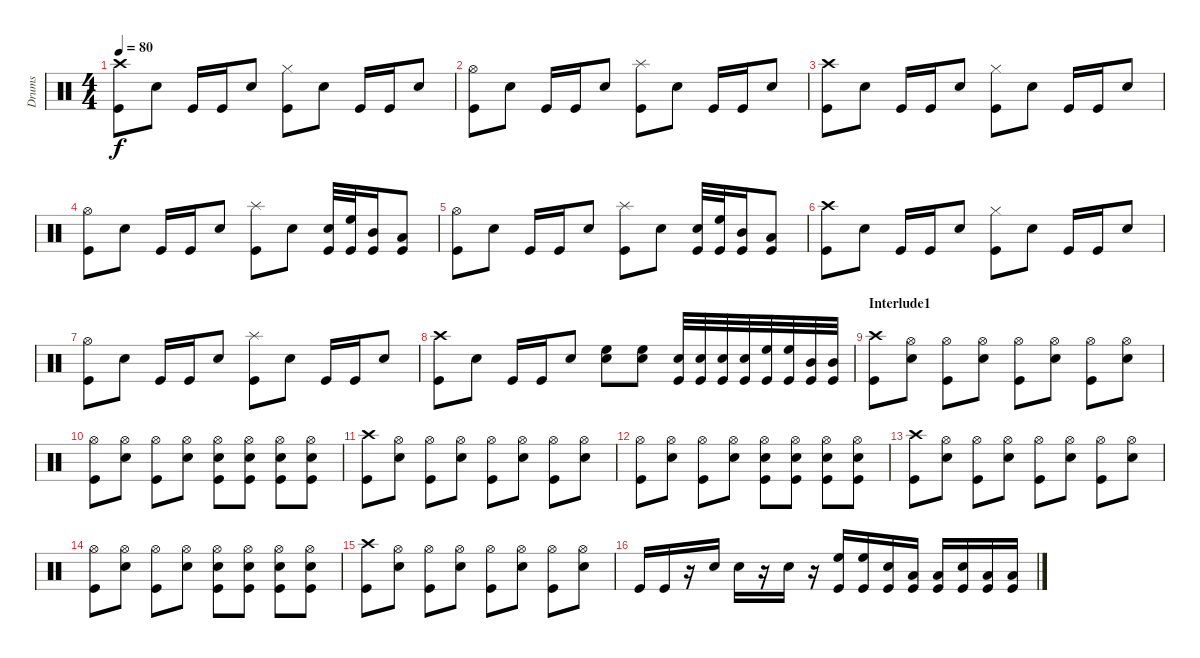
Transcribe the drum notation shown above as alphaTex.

\track ("Drums" "Drums") {instrument percussion}
\staff {score}
\articulation defaults
\ts (4 4)
\tempo 80
\clef neutral
\ks c
("Crash high (hit)" "Kick (hit)").8{dy f} "Electric Snare (hit)".8 "Kick (hit)".16 "Kick (hit)".16 "Electric Snare (hit)".8 ("Hi-Hat (closed)" "Kick (hit)").8 "Electric Snare (hit)".8 "Kick (hit)".16 "Kick (hit)".16 "Electric Snare (hit)".8 |
("Hi-Hat (open)" "Kick (hit)").8 "Electric Snare (hit)".8 "Kick (hit)".16 "Kick (hit)".16 "Electric Snare (hit)".8 ("Splash (hit)" "Kick (hit)").8 "Electric Snare (hit)".8 "Kick (hit)".16 "Kick (hit)".16 "Electric Snare (hit)".8 |
("Crash high (hit)" "Kick (hit)").8 "Electric Snare (hit)".8 "Kick (hit)".16 "Kick (hit)".16 "Electric Snare (hit)".8 ("Hi-Hat (closed)" "Kick (hit)").8 "Electric Snare (hit)".8 "Kick (hit)".16 "Kick (hit)".16 "Electric Snare (hit)".8 |
("Hi-Hat (open)" "Kick (hit)").8 "Electric Snare (hit)".8 "Kick (hit)".16 "Kick (hit)".16 "Electric Snare (hit)".8 ("Splash (hit)" "Kick (hit)").8 "Electric Snare (hit)".8 ("Electric Snare (hit)" "Kick (hit)").32 ("High Floor Tom (hit)" "Kick (hit)").32 ("Mid Tom (hit)" "Kick (hit)").16 ("Low Tom (hit)" "Kick (hit)").8 |
("Hi-Hat (open)" "Kick (hit)").8 "Electric Snare (hit)".8 "Kick (hit)".16 "Kick (hit)".16 "Electric Snare (hit)".8 ("Splash (hit)" "Kick (hit)").8 "Electric Snare (hit)".8 ("Electric Snare (hit)" "Kick (hit)").32 ("High Floor Tom (hit)" "Kick (hit)").32 ("Mid Tom (hit)" "Kick (hit)").16 ("Low Tom (hit)" "Kick (hit)").8 |
("Crash high (hit)" "Kick (hit)").8 "Electric Snare (hit)".8 "Kick (hit)".16 "Kick (hit)".16 "Electric Snare (hit)".8 ("Hi-Hat (closed)" "Kick (hit)").8 "Electric Snare (hit)".8 "Kick (hit)".16 "Kick (hit)".16 "Electric Snare (hit)".8 |
("Hi-Hat (open)" "Kick (hit)").8 "Electric Snare (hit)".8 "Kick (hit)".16 "Kick (hit)".16 "Electric Snare (hit)".8 ("Splash (hit)" "Kick (hit)").8 "Electric Snare (hit)".8 "Kick (hit)".16 "Kick (hit)".16 "Electric Snare (hit)".8 |
("Crash high (hit)" "Kick (hit)").8 "Electric Snare (hit)".8 "Kick (hit)".16 "Kick (hit)".16 "Electric Snare (hit)".8 ("High Floor Tom (hit)" "Electric Snare (hit)").8 ("High Floor Tom (hit)" "Electric Snare (hit)").8 ("Electric Snare (hit)" "Kick (hit)").32 ("Electric Snare (hit)" "Kick (hit)").32 ("Electric Snare (hit)" "Kick (hit)").32 ("Electric Snare (hit)" "Kick (hit)").32 ("High Floor Tom (hit)" "Kick (hit)").32 ("High Floor Tom (hit)" "Kick (hit)").32 ("Mid Tom (hit)" "Kick (hit)").32 ("Mid Tom (hit)" "Kick (hit)").32 |
\section ("" "Interlude1")
("Crash high (hit)" "Kick (hit)").8 ("Hi-Hat (open)" "Electric Snare (hit)").8 ("Hi-Hat (open)" "Kick (hit)").8 ("Hi-Hat (open)" "Electric Snare (hit)").8 ("Hi-Hat (open)" "Kick (hit)").8 ("Hi-Hat (open)" "Electric Snare (hit)").8 ("Hi-Hat (open)" "Kick (hit)").8 ("Hi-Hat (open)" "Electric Snare (hit)").8 |
("Hi-Hat (open)" "Kick (hit)").8 ("Hi-Hat (open)" "Electric Snare (hit)").8 ("Hi-Hat (open)" "Kick (hit)").8 ("Hi-Hat (open)" "Electric Snare (hit)").8 ("Hi-Hat (open)" "Electric Snare (hit)" "Kick (hit)").8 ("Hi-Hat (open)" "Electric Snare (hit)" "Kick (hit)").8 ("Hi-Hat (open)" "Electric Snare (hit)" "Kick (hit)").8 ("Hi-Hat (open)" "Electric Snare (hit)" "Kick (hit)").8 |
("Crash high (hit)" "Kick (hit)").8 ("Hi-Hat (open)" "Electric Snare (hit)").8 ("Hi-Hat (open)" "Kick (hit)").8 ("Hi-Hat (open)" "Electric Snare (hit)").8 ("Hi-Hat (open)" "Kick (hit)").8 ("Hi-Hat (open)" "Electric Snare (hit)").8 ("Hi-Hat (open)" "Kick (hit)").8 ("Hi-Hat (open)" "Electric Snare (hit)").8 |
("Hi-Hat (open)" "Kick (hit)").8 ("Hi-Hat (open)" "Electric Snare (hit)").8 ("Hi-Hat (open)" "Kick (hit)").8 ("Hi-Hat (open)" "Electric Snare (hit)").8 ("Hi-Hat (open)" "Electric Snare (hit)" "Kick (hit)").8 ("Hi-Hat (open)" "Electric Snare (hit)" "Kick (hit)").8 ("Hi-Hat (open)" "Electric Snare (hit)" "Kick (hit)").8 ("Hi-Hat (open)" "Electric Snare (hit)" "Kick (hit)").8 |
("Crash high (hit)" "Kick (hit)").8 ("Hi-Hat (open)" "Electric Snare (hit)").8 ("Hi-Hat (open)" "Kick (hit)").8 ("Hi-Hat (open)" "Electric Snare (hit)").8 ("Hi-Hat (open)" "Kick (hit)").8 ("Hi-Hat (open)" "Electric Snare (hit)").8 ("Hi-Hat (open)" "Kick (hit)").8 ("Hi-Hat (open)" "Electric Snare (hit)").8 |
("Hi-Hat (open)" "Kick (hit)").8 ("Hi-Hat (open)" "Electric Snare (hit)").8 ("Hi-Hat (open)" "Kick (hit)").8 ("Hi-Hat (open)" "Electric Snare (hit)").8 ("Hi-Hat (open)" "Electric Snare (hit)" "Kick (hit)").8 ("Hi-Hat (open)" "Electric Snare (hit)" "Kick (hit)").8 ("Hi-Hat (open)" "Electric Snare (hit)" "Kick (hit)").8 ("Hi-Hat (open)" "Electric Snare (hit)" "Kick (hit)").8 |
("Crash high (hit)" "Kick (hit)").8 ("Hi-Hat (open)" "Electric Snare (hit)").8 ("Hi-Hat (open)" "Kick (hit)").8 ("Hi-Hat (open)" "Electric Snare (hit)").8 ("Hi-Hat (open)" "Kick (hit)").8 ("Hi-Hat (open)" "Electric Snare (hit)").8 ("Hi-Hat (open)" "Kick (hit)").8 ("Hi-Hat (open)" "Electric Snare (hit)").8 |
"Kick (hit)".16 "Kick (hit)".16 r.16 "Electric Snare (hit)".16 "Electric Snare (hit)".16 r.16 "Electric Snare (hit)".16 r.16 ("High Floor Tom (hit)" "Kick (hit)").16 ("High Floor Tom (hit)" "Kick (hit)").16 ("Electric Snare (hit)" "Kick (hit)").16 ("Low Tom (hit)" "Kick (hit)").16 ("Low Tom (hit)" "Kick (hit)").16 ("Electric Snare (hit)" "Kick (hit)").16 ("Low Floor Tom (hit)" "Kick (hit)").16 ("Low Floor Tom (hit)" "Kick (hit)").16
